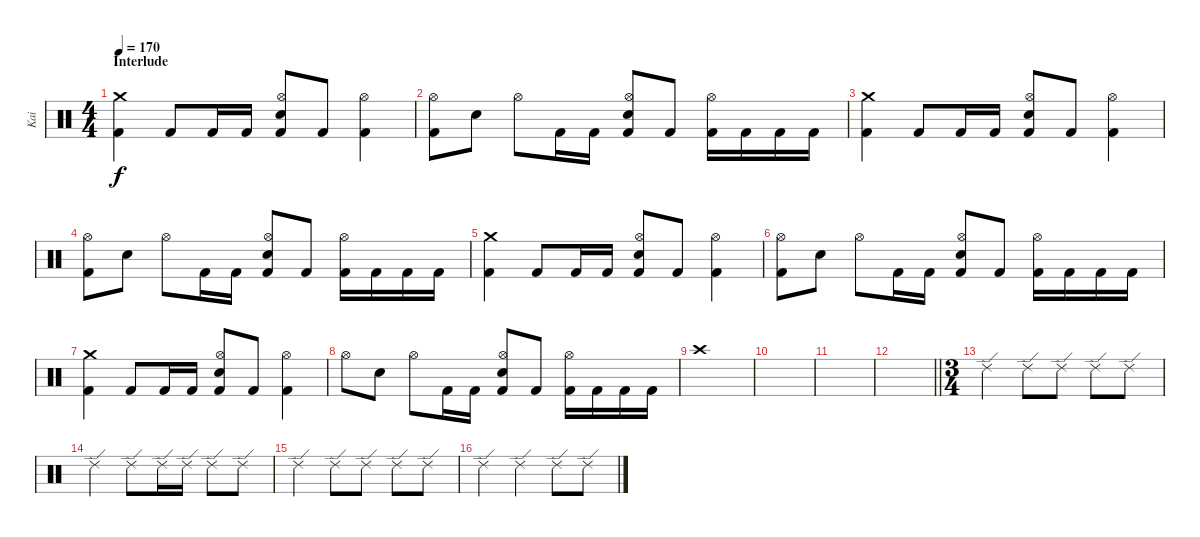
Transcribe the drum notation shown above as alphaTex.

\track ("Kai" "Kai") {instrument percussion}
\staff {score}
\articulation defaults
\ts (4 4)
\section ("" "Interlude")
\tempo 170
\clef neutral
\ks c
("Crash medium (hit)" "Kick (hit) 2").4{dy f} "Kick (hit) 2".8 "Kick (hit) 2".16 "Kick (hit) 2".16 ("Hi-Hat (open)" "Electric Snare (hit)" "Kick (hit) 2").8 "Kick (hit) 2".8 ("Hi-Hat (open)" "Kick (hit) 2").4 |
("Hi-Hat (open)" "Kick (hit) 2").8 "Electric Snare (hit)".8 "Hi-Hat (open)".8 "Kick (hit) 2".16 "Kick (hit) 2".16 ("Hi-Hat (open)" "Electric Snare (hit)" "Kick (hit) 2").8 "Kick (hit) 2".8 ("Hi-Hat (open)" "Kick (hit) 2").16 "Kick (hit) 2".16 "Kick (hit) 2".16 "Kick (hit) 2".16 |
("Crash medium (hit)" "Kick (hit) 2").4 "Kick (hit) 2".8 "Kick (hit) 2".16 "Kick (hit) 2".16 ("Hi-Hat (open)" "Electric Snare (hit)" "Kick (hit) 2").8 "Kick (hit) 2".8 ("Hi-Hat (open)" "Kick (hit) 2").4 |
("Hi-Hat (open)" "Kick (hit) 2").8 "Electric Snare (hit)".8 "Hi-Hat (open)".8 "Kick (hit) 2".16 "Kick (hit) 2".16 ("Hi-Hat (open)" "Electric Snare (hit)" "Kick (hit) 2").8 "Kick (hit) 2".8 ("Hi-Hat (open)" "Kick (hit) 2").16 "Kick (hit) 2".16 "Kick (hit) 2".16 "Kick (hit) 2".16 |
("Crash medium (hit)" "Kick (hit) 2").4 "Kick (hit) 2".8 "Kick (hit) 2".16 "Kick (hit) 2".16 ("Hi-Hat (open)" "Electric Snare (hit)" "Kick (hit) 2").8 "Kick (hit) 2".8 ("Hi-Hat (open)" "Kick (hit) 2").4 |
("Hi-Hat (open)" "Kick (hit) 2").8 "Electric Snare (hit)".8 "Hi-Hat (open)".8 "Kick (hit) 2".16 "Kick (hit) 2".16 ("Hi-Hat (open)" "Electric Snare (hit)" "Kick (hit) 2").8 "Kick (hit) 2".8 ("Hi-Hat (open)" "Kick (hit) 2").16 "Kick (hit) 2".16 "Kick (hit) 2".16 "Kick (hit) 2".16 |
("Crash medium (hit)" "Kick (hit) 2").4 "Kick (hit) 2".8 "Kick (hit) 2".16 "Kick (hit) 2".16 ("Hi-Hat (open)" "Electric Snare (hit)" "Kick (hit) 2").8 "Kick (hit) 2".8 ("Hi-Hat (open)" "Kick (hit) 2").4 |
"Hi-Hat (open)".8 "Electric Snare (hit)".8 "Hi-Hat (open)".8 "Kick (hit) 2".16 "Kick (hit) 2".16 ("Hi-Hat (open)" "Electric Snare (hit)" "Kick (hit) 2").8 "Kick (hit) 2".8 ("Hi-Hat (open)" "Kick (hit) 2").16 "Kick (hit) 2".16 "Kick (hit) 2".16 "Kick (hit) 2".16 |
"Crash high (hit)".1 |
|
|
\barLineRight lightlight
|
\ts (3 4)
\section ("" "")
"Ride (edge) 2".4 "Ride (edge) 2".8 "Ride (edge) 2".8 "Ride (edge) 2".8 "Ride (edge) 2".8 |
"Ride (edge) 2".4 "Ride (edge) 2".8 "Ride (edge) 2".16 "Ride (edge) 2".16 "Ride (edge) 2".8 "Ride (edge) 2".8 |
"Ride (edge) 2".4 "Ride (edge) 2".8 "Ride (edge) 2".8 "Ride (edge) 2".8 "Ride (edge) 2".8 |
"Ride (edge) 2".4 "Ride (edge) 2".4 "Ride (edge) 2".8 "Ride (edge) 2".8
